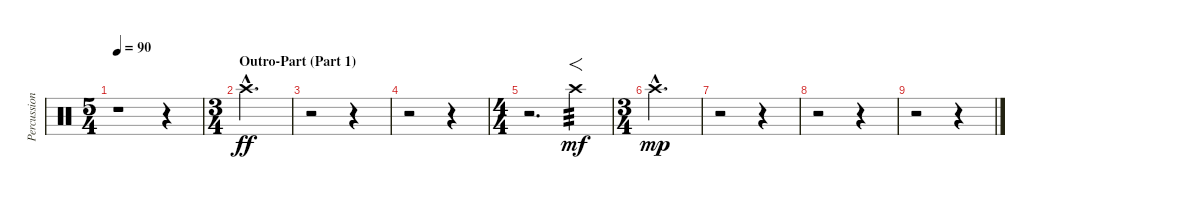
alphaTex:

\track ("Percussions" "Percussion") {instrument percussion}
\staff {score}
\articulation defaults
\ts (5 4)
\tempo 90
\clef neutral
\ks c
r.1{dy f} r.4 |
\ts (3 4)
\section ("" "Outro-Part (Part 1)")
"Crash high (hit)"{hac}.2{d dy ff} |
r.2 r.4 |
r.2 r.4 |
\ts (4 4)
r.2{d} "Crash high (hit)".4{f tp 3 dy mf} |
\ts (3 4)
"Crash high (hit)"{hac}.2{d dy mp} |
r.2 r.4 |
r.2 r.4 |
r.2 r.4
